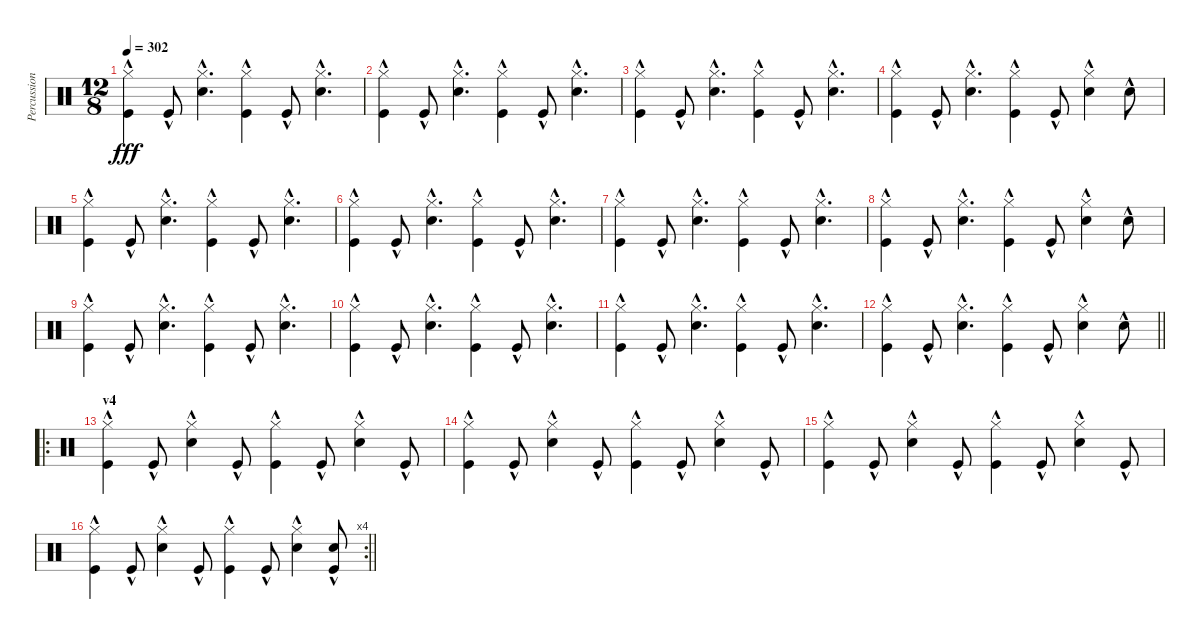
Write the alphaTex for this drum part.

\track ("Percussion" "Percussion") {instrument percussion}
\staff {score}
\articulation defaults
\ts (12 8)
\tempo 302
\clef neutral
\ks c
("Hi-Hat (closed)"{hac} "Kick (hit)"{hac}).4{dy fff} "Kick (hit)"{hac}.8 ("Hi-Hat (closed)"{hac} "Electric Snare (hit)"{hac}).4{d} ("Hi-Hat (closed)"{hac} "Kick (hit)"{hac}).4 "Kick (hit)"{hac}.8 ("Hi-Hat (closed)"{hac} "Electric Snare (hit)"{hac}).4{d} |
("Hi-Hat (closed)"{hac} "Kick (hit)"{hac}).4 "Kick (hit)"{hac}.8 ("Hi-Hat (closed)"{hac} "Electric Snare (hit)"{hac}).4{d} ("Hi-Hat (closed)"{hac} "Kick (hit)"{hac}).4 "Kick (hit)"{hac}.8 ("Hi-Hat (closed)"{hac} "Electric Snare (hit)"{hac}).4{d} |
("Hi-Hat (closed)"{hac} "Kick (hit)"{hac}).4 "Kick (hit)"{hac}.8 ("Hi-Hat (closed)"{hac} "Electric Snare (hit)"{hac}).4{d} ("Hi-Hat (closed)"{hac} "Kick (hit)"{hac}).4 "Kick (hit)"{hac}.8 ("Hi-Hat (closed)"{hac} "Electric Snare (hit)"{hac}).4{d} |
("Hi-Hat (closed)"{hac} "Kick (hit)"{hac}).4 "Kick (hit)"{hac}.8 ("Hi-Hat (closed)"{hac} "Electric Snare (hit)"{hac}).4{d} ("Hi-Hat (closed)"{hac} "Kick (hit)"{hac}).4 "Kick (hit)"{hac}.8 ("Hi-Hat (closed)"{hac} "Electric Snare (hit)"{hac}).4 "Electric Snare (hit)"{hac}.8 |
("Hi-Hat (closed)"{hac} "Kick (hit)"{hac}).4 "Kick (hit)"{hac}.8 ("Hi-Hat (closed)"{hac} "Electric Snare (hit)"{hac}).4{d} ("Hi-Hat (closed)"{hac} "Kick (hit)"{hac}).4 "Kick (hit)"{hac}.8 ("Hi-Hat (closed)"{hac} "Electric Snare (hit)"{hac}).4{d} |
("Hi-Hat (closed)"{hac} "Kick (hit)"{hac}).4 "Kick (hit)"{hac}.8 ("Hi-Hat (closed)"{hac} "Electric Snare (hit)"{hac}).4{d} ("Hi-Hat (closed)"{hac} "Kick (hit)"{hac}).4 "Kick (hit)"{hac}.8 ("Hi-Hat (closed)"{hac} "Electric Snare (hit)"{hac}).4{d} |
("Hi-Hat (closed)"{hac} "Kick (hit)"{hac}).4 "Kick (hit)"{hac}.8 ("Hi-Hat (closed)"{hac} "Electric Snare (hit)"{hac}).4{d} ("Hi-Hat (closed)"{hac} "Kick (hit)"{hac}).4 "Kick (hit)"{hac}.8 ("Hi-Hat (closed)"{hac} "Electric Snare (hit)"{hac}).4{d} |
("Hi-Hat (closed)"{hac} "Kick (hit)"{hac}).4 "Kick (hit)"{hac}.8 ("Hi-Hat (closed)"{hac} "Electric Snare (hit)"{hac}).4{d} ("Hi-Hat (closed)"{hac} "Kick (hit)"{hac}).4 "Kick (hit)"{hac}.8 ("Hi-Hat (closed)"{hac} "Electric Snare (hit)"{hac}).4 "Electric Snare (hit)"{hac}.8 |
("Hi-Hat (closed)"{hac} "Kick (hit)"{hac}).4 "Kick (hit)"{hac}.8 ("Hi-Hat (closed)"{hac} "Electric Snare (hit)"{hac}).4{d} ("Hi-Hat (closed)"{hac} "Kick (hit)"{hac}).4 "Kick (hit)"{hac}.8 ("Hi-Hat (closed)"{hac} "Electric Snare (hit)"{hac}).4{d} |
("Hi-Hat (closed)"{hac} "Kick (hit)"{hac}).4 "Kick (hit)"{hac}.8 ("Hi-Hat (closed)"{hac} "Electric Snare (hit)"{hac}).4{d} ("Hi-Hat (closed)"{hac} "Kick (hit)"{hac}).4 "Kick (hit)"{hac}.8 ("Hi-Hat (closed)"{hac} "Electric Snare (hit)"{hac}).4{d} |
("Hi-Hat (closed)"{hac} "Kick (hit)"{hac}).4 "Kick (hit)"{hac}.8 ("Hi-Hat (closed)"{hac} "Electric Snare (hit)"{hac}).4{d} ("Hi-Hat (closed)"{hac} "Kick (hit)"{hac}).4 "Kick (hit)"{hac}.8 ("Hi-Hat (closed)"{hac} "Electric Snare (hit)"{hac}).4{d} |
\barLineRight lightlight
("Hi-Hat (closed)"{hac} "Kick (hit)"{hac}).4 "Kick (hit)"{hac}.8 ("Hi-Hat (closed)"{hac} "Electric Snare (hit)"{hac}).4{d} ("Hi-Hat (closed)"{hac} "Kick (hit)"{hac}).4 "Kick (hit)"{hac}.8 ("Hi-Hat (closed)"{hac} "Electric Snare (hit)"{hac}).4 "Electric Snare (hit)"{hac}.8 |
\ro
\section ("" "v4")
("Hi-Hat (closed)"{hac} "Kick (hit)"{hac}).4 "Kick (hit)"{hac}.8 ("Hi-Hat (closed)"{hac} "Electric Snare (hit)"{hac}).4 "Kick (hit)"{hac}.8 ("Hi-Hat (closed)"{hac} "Kick (hit)"{hac}).4 "Kick (hit)"{hac}.8 ("Hi-Hat (closed)"{hac} "Electric Snare (hit)"{hac}).4 "Kick (hit)"{hac}.8 |
("Hi-Hat (closed)"{hac} "Kick (hit)"{hac}).4 "Kick (hit)"{hac}.8 ("Hi-Hat (closed)"{hac} "Electric Snare (hit)"{hac}).4 "Kick (hit)"{hac}.8 ("Hi-Hat (closed)"{hac} "Kick (hit)"{hac}).4 "Kick (hit)"{hac}.8 ("Hi-Hat (closed)"{hac} "Electric Snare (hit)"{hac}).4 "Kick (hit)"{hac}.8 |
("Hi-Hat (closed)"{hac} "Kick (hit)"{hac}).4 "Kick (hit)"{hac}.8 ("Hi-Hat (closed)"{hac} "Electric Snare (hit)"{hac}).4 "Kick (hit)"{hac}.8 ("Hi-Hat (closed)"{hac} "Kick (hit)"{hac}).4 "Kick (hit)"{hac}.8 ("Hi-Hat (closed)"{hac} "Electric Snare (hit)"{hac}).4 "Kick (hit)"{hac}.8 |
\rc 4
\barLineRight lightlight
("Hi-Hat (closed)"{hac} "Kick (hit)"{hac}).4 "Kick (hit)"{hac}.8 ("Hi-Hat (closed)"{hac} "Electric Snare (hit)"{hac}).4 "Kick (hit)"{hac}.8 ("Hi-Hat (closed)"{hac} "Kick (hit)"{hac}).4 "Kick (hit)"{hac}.8 ("Hi-Hat (closed)"{hac} "Electric Snare (hit)"{hac}).4 ("Electric Snare (hit)"{hac} "Kick (hit)"{hac}).8
